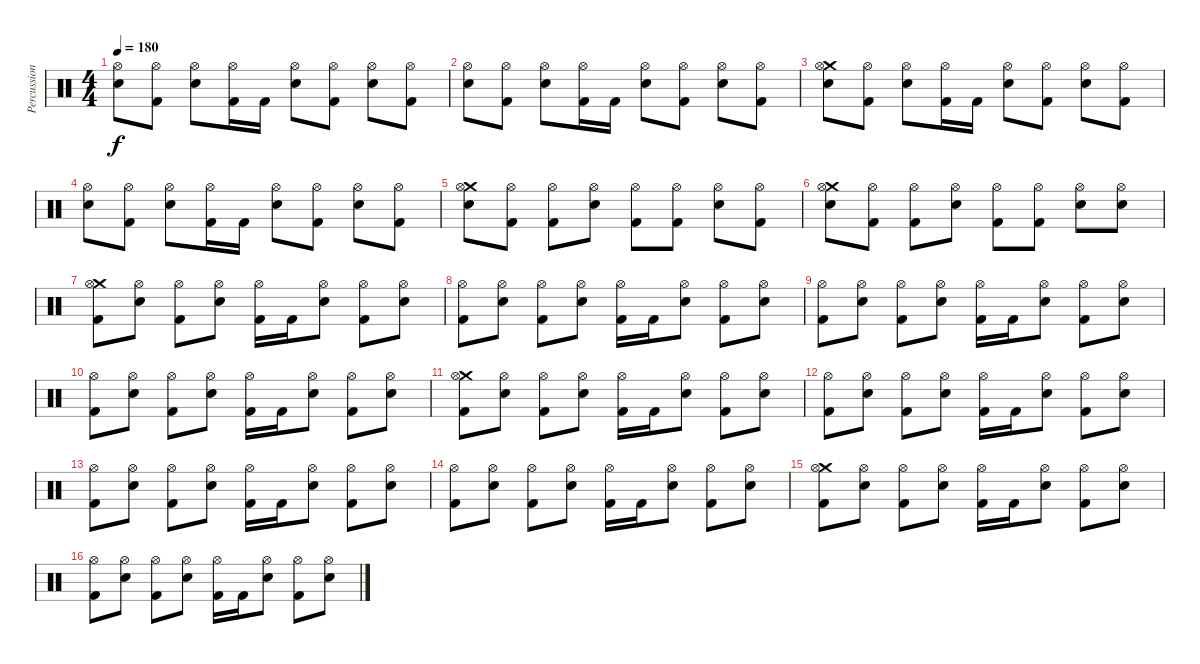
\track ("Percussion" "Percussion") {instrument percussion}
\staff {score}
\articulation defaults
\ts (4 4)
\tempo 180
\clef neutral
\ks c
("Hi-Hat (open)" "Electric Snare (hit)").8{dy f} ("Hi-Hat (open)" "Kick (hit) 2").8 ("Hi-Hat (open)" "Electric Snare (hit)").8 ("Hi-Hat (open)" "Kick (hit) 2").16 "Kick (hit) 2".16 ("Hi-Hat (open)" "Electric Snare (hit)").8 ("Hi-Hat (open)" "Kick (hit) 2").8 ("Hi-Hat (open)" "Electric Snare (hit)").8 ("Hi-Hat (open)" "Kick (hit) 2").8 |
("Hi-Hat (open)" "Electric Snare (hit)").8 ("Hi-Hat (open)" "Kick (hit) 2").8 ("Hi-Hat (open)" "Electric Snare (hit)").8 ("Hi-Hat (open)" "Kick (hit) 2").16 "Kick (hit) 2".16 ("Hi-Hat (open)" "Electric Snare (hit)").8 ("Hi-Hat (open)" "Kick (hit) 2").8 ("Hi-Hat (open)" "Electric Snare (hit)").8 ("Hi-Hat (open)" "Kick (hit) 2").8 |
("Crash medium (hit)" "Hi-Hat (open)" "Electric Snare (hit)").8 ("Hi-Hat (open)" "Kick (hit) 2").8 ("Hi-Hat (open)" "Electric Snare (hit)").8 ("Hi-Hat (open)" "Kick (hit) 2").16 "Kick (hit) 2".16 ("Hi-Hat (open)" "Electric Snare (hit)").8 ("Hi-Hat (open)" "Kick (hit) 2").8 ("Hi-Hat (open)" "Electric Snare (hit)").8 ("Hi-Hat (open)" "Kick (hit) 2").8 |
("Hi-Hat (open)" "Electric Snare (hit)").8 ("Hi-Hat (open)" "Kick (hit) 2").8 ("Hi-Hat (open)" "Electric Snare (hit)").8 ("Hi-Hat (open)" "Kick (hit) 2").16 "Kick (hit) 2".16 ("Hi-Hat (open)" "Electric Snare (hit)").8 ("Hi-Hat (open)" "Kick (hit) 2").8 ("Hi-Hat (open)" "Electric Snare (hit)").8 ("Hi-Hat (open)" "Kick (hit) 2").8 |
("Crash medium (hit)" "Hi-Hat (open)" "Electric Snare (hit)").8 ("Hi-Hat (open)" "Kick (hit) 2").8 ("Hi-Hat (open)" "Kick (hit) 2").8 ("Hi-Hat (open)" "Electric Snare (hit)").8 ("Hi-Hat (open)" "Kick (hit) 2").8 ("Hi-Hat (open)" "Kick (hit) 2").8 ("Hi-Hat (open)" "Electric Snare (hit)").8 ("Hi-Hat (open)" "Kick (hit) 2").8 |
("Crash medium (hit)" "Hi-Hat (open)" "Electric Snare (hit)").8 ("Hi-Hat (open)" "Kick (hit) 2").8 ("Hi-Hat (open)" "Kick (hit) 2").8 ("Hi-Hat (open)" "Electric Snare (hit)").8 ("Hi-Hat (open)" "Kick (hit) 2").8 ("Hi-Hat (open)" "Kick (hit) 2").8 ("Hi-Hat (open)" "Electric Snare (hit)").8 ("Hi-Hat (open)" "Electric Snare (hit)").8 |
("Crash medium (hit)" "Hi-Hat (open)" "Kick (hit) 2").8 ("Hi-Hat (open)" "Electric Snare (hit)").8 ("Hi-Hat (open)" "Kick (hit) 2").8 ("Hi-Hat (open)" "Electric Snare (hit)").8 ("Hi-Hat (open)" "Kick (hit) 2").16 "Kick (hit) 2".16 ("Hi-Hat (open)" "Electric Snare (hit)").8 ("Hi-Hat (open)" "Kick (hit) 2").8 ("Hi-Hat (open)" "Electric Snare (hit)").8 |
("Hi-Hat (open)" "Kick (hit) 2").8 ("Hi-Hat (open)" "Electric Snare (hit)").8 ("Hi-Hat (open)" "Kick (hit) 2").8 ("Hi-Hat (open)" "Electric Snare (hit)").8 ("Hi-Hat (open)" "Kick (hit) 2").16 "Kick (hit) 2".16 ("Hi-Hat (open)" "Electric Snare (hit)").8 ("Hi-Hat (open)" "Kick (hit) 2").8 ("Hi-Hat (open)" "Electric Snare (hit)").8 |
("Hi-Hat (open)" "Kick (hit) 2").8 ("Hi-Hat (open)" "Electric Snare (hit)").8 ("Hi-Hat (open)" "Kick (hit) 2").8 ("Hi-Hat (open)" "Electric Snare (hit)").8 ("Hi-Hat (open)" "Kick (hit) 2").16 "Kick (hit) 2".16 ("Hi-Hat (open)" "Electric Snare (hit)").8 ("Hi-Hat (open)" "Kick (hit) 2").8 ("Hi-Hat (open)" "Electric Snare (hit)").8 |
("Hi-Hat (open)" "Kick (hit) 2").8 ("Hi-Hat (open)" "Electric Snare (hit)").8 ("Hi-Hat (open)" "Kick (hit) 2").8 ("Hi-Hat (open)" "Electric Snare (hit)").8 ("Hi-Hat (open)" "Kick (hit) 2").16 "Kick (hit) 2".16 ("Hi-Hat (open)" "Electric Snare (hit)").8 ("Hi-Hat (open)" "Kick (hit) 2").8 ("Hi-Hat (open)" "Electric Snare (hit)").8 |
("Crash medium (hit)" "Hi-Hat (open)" "Kick (hit) 2").8 ("Hi-Hat (open)" "Electric Snare (hit)").8 ("Hi-Hat (open)" "Kick (hit) 2").8 ("Hi-Hat (open)" "Electric Snare (hit)").8 ("Hi-Hat (open)" "Kick (hit) 2").16 "Kick (hit) 2".16 ("Hi-Hat (open)" "Electric Snare (hit)").8 ("Hi-Hat (open)" "Kick (hit) 2").8 ("Hi-Hat (open)" "Electric Snare (hit)").8 |
("Hi-Hat (open)" "Kick (hit) 2").8 ("Hi-Hat (open)" "Electric Snare (hit)").8 ("Hi-Hat (open)" "Kick (hit) 2").8 ("Hi-Hat (open)" "Electric Snare (hit)").8 ("Hi-Hat (open)" "Kick (hit) 2").16 "Kick (hit) 2".16 ("Hi-Hat (open)" "Electric Snare (hit)").8 ("Hi-Hat (open)" "Kick (hit) 2").8 ("Hi-Hat (open)" "Electric Snare (hit)").8 |
("Hi-Hat (open)" "Kick (hit) 2").8 ("Hi-Hat (open)" "Electric Snare (hit)").8 ("Hi-Hat (open)" "Kick (hit) 2").8 ("Hi-Hat (open)" "Electric Snare (hit)").8 ("Hi-Hat (open)" "Kick (hit) 2").16 "Kick (hit) 2".16 ("Hi-Hat (open)" "Electric Snare (hit)").8 ("Hi-Hat (open)" "Kick (hit) 2").8 ("Hi-Hat (open)" "Electric Snare (hit)").8 |
("Hi-Hat (open)" "Kick (hit) 2").8 ("Hi-Hat (open)" "Electric Snare (hit)").8 ("Hi-Hat (open)" "Kick (hit) 2").8 ("Hi-Hat (open)" "Electric Snare (hit)").8 ("Hi-Hat (open)" "Kick (hit) 2").16 "Kick (hit) 2".16 ("Hi-Hat (open)" "Electric Snare (hit)").8 ("Hi-Hat (open)" "Kick (hit) 2").8 ("Hi-Hat (open)" "Electric Snare (hit)").8 |
("Crash medium (hit)" "Hi-Hat (open)" "Kick (hit) 2").8 ("Hi-Hat (open)" "Electric Snare (hit)").8 ("Hi-Hat (open)" "Kick (hit) 2").8 ("Hi-Hat (open)" "Electric Snare (hit)").8 ("Hi-Hat (open)" "Kick (hit) 2").16 "Kick (hit) 2".16 ("Hi-Hat (open)" "Electric Snare (hit)").8 ("Hi-Hat (open)" "Kick (hit) 2").8 ("Hi-Hat (open)" "Electric Snare (hit)").8 |
("Hi-Hat (open)" "Kick (hit) 2").8 ("Hi-Hat (open)" "Electric Snare (hit)").8 ("Hi-Hat (open)" "Kick (hit) 2").8 ("Hi-Hat (open)" "Electric Snare (hit)").8 ("Hi-Hat (open)" "Kick (hit) 2").16 "Kick (hit) 2".16 ("Hi-Hat (open)" "Electric Snare (hit)").8 ("Hi-Hat (open)" "Kick (hit) 2").8 ("Hi-Hat (open)" "Electric Snare (hit)").8
